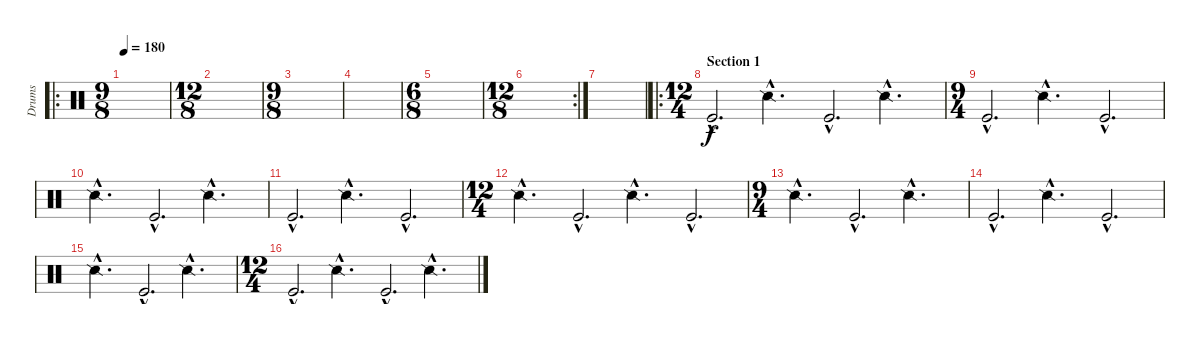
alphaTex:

\track ("Drums" "Drums") {instrument percussion}
\staff {score}
\articulation defaults
\ro
\ts (9 8)
\tempo 180
\clef neutral
\ks c
|
\ts (12 8)
|
\ts (9 8)
|
|
\ts (6 8)
|
\rc 2
\ts (12 8)
|
|
\ro
\ts (12 4)
\section ("" "Section 1")
"Kick (hit)"{hac}.2{d} "Snare (side stick) 2"{hac}.2{d} "Kick (hit)"{hac}.2{d} "Snare (side stick) 2"{hac}.2{d} |
\ts (9 4)
"Kick (hit)"{hac}.2{d} "Snare (side stick) 2"{hac}.2{d} "Kick (hit)"{hac}.2{d} |
"Snare (side stick) 2"{hac}.2{d} "Kick (hit)"{hac}.2{d} "Snare (side stick) 2"{hac}.2{d} |
"Kick (hit)"{hac}.2{d} "Snare (side stick) 2"{hac}.2{d} "Kick (hit)"{hac}.2{d} |
\ts (12 4)
"Snare (side stick) 2"{hac}.2{d} "Kick (hit)"{hac}.2{d} "Snare (side stick) 2"{hac}.2{d} "Kick (hit)"{hac}.2{d} |
\ts (9 4)
"Snare (side stick) 2"{hac}.2{d} "Kick (hit)"{hac}.2{d} "Snare (side stick) 2"{hac}.2{d} |
"Kick (hit)"{hac}.2{d} "Snare (side stick) 2"{hac}.2{d} "Kick (hit)"{hac}.2{d} |
"Snare (side stick) 2"{hac}.2{d} "Kick (hit)"{hac}.2{d} "Snare (side stick) 2"{hac}.2{d} |
\ts (12 4)
"Kick (hit)"{hac}.2{d} "Snare (side stick) 2"{hac}.2{d} "Kick (hit)"{hac}.2{d} "Snare (side stick) 2"{hac}.2{d}
